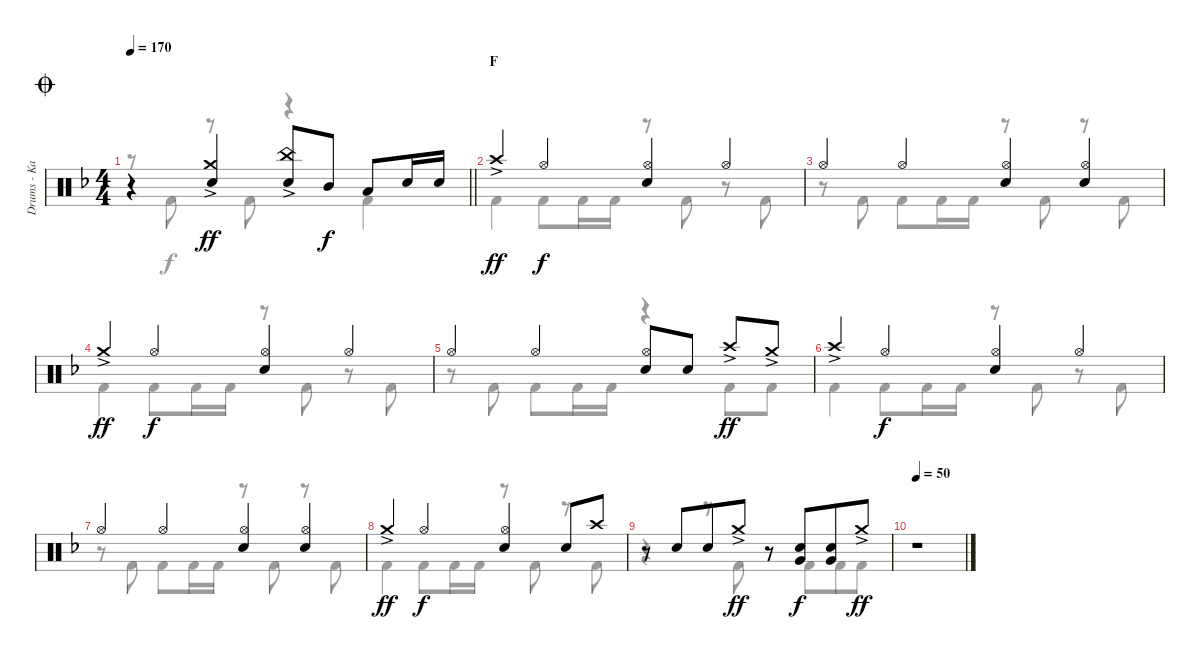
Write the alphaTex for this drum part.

\track ("Drums - Kai" "Drums - Ka") {instrument percussion}
\staff {score}
\articulation defaults
\voice
\ts (4 4)
\section ("" "")
\jump coda
\tempo 170
\clef neutral
\barLineRight lightlight
\ks f
r.4{dy ff} ("Crash medium (hit)"{ac} "Snare (hit) 2").4 ("China (hit)"{ac} "Snare (hit) 2").8 "Mid Tom (hit)".8{dy f} "Low Tom (hit)".8 "Snare (hit) 2".16 "Snare (hit) 2".16 |
\section ("" "F")
"Crash high (hit)"{ac}.4{dy ff} "Hi-Hat (open)".4{dy f} ("Hi-Hat (open)" "Snare (hit) 2").4 "Hi-Hat (open)".4 |
"Hi-Hat (open)".4 "Hi-Hat (open)".4 ("Hi-Hat (open)" "Snare (hit) 2").4 ("Hi-Hat (open)" "Snare (hit) 2").4 |
"Crash medium (hit)"{ac}.4{dy ff} "Hi-Hat (open)".4{dy f} ("Hi-Hat (open)" "Snare (hit) 2").4 "Hi-Hat (open)".4 |
"Hi-Hat (open)".4 "Hi-Hat (open)".4 ("Hi-Hat (open)" "Snare (hit) 2").8 "Snare (hit) 2".8 "Crash high (hit)"{ac}.8{dy ff} "Crash medium (hit)"{ac}.8 |
"Crash high (hit)"{ac}.4 "Hi-Hat (open)".4{dy f} ("Hi-Hat (open)" "Snare (hit) 2").4 "Hi-Hat (open)".4 |
"Hi-Hat (open)".4 "Hi-Hat (open)".4 ("Hi-Hat (open)" "Snare (hit) 2").4 ("Hi-Hat (open)" "Snare (hit) 2").4 |
"Crash medium (hit)"{ac}.4{dy ff} "Hi-Hat (open)".4{dy f} ("Hi-Hat (open)" "Snare (hit) 2").4 "Snare (hit) 2".8 "Crash high (hit)".8 |
r.8 "Snare (hit) 2".8{beam merge} "Snare (hit) 2".8 "Crash medium (hit)"{ac}.8{dy ff} r.8 ("Very Low Tom (hit)" "Snare (hit) 2").8{dy f beam merge} ("Very Low Tom (hit)" "Snare (hit) 2").8 "Crash medium (hit)"{ac}.8{dy ff} |
\tempo 50
r.1
\voice
\clef neutral
\ottava regular
\simile none
\barLineRight lightlight
\ks f
r.8{dy f} "Kick (hit) 2".8 r.8 "Kick (hit) 2".8 r.4 "Kick (hit) 2".4 |
"Kick (hit) 2".4 "Kick (hit) 2".8 "Kick (hit) 2".16 "Kick (hit) 2".16 r.8 "Kick (hit) 2".8 r.8 "Kick (hit) 2".8 |
r.8 "Kick (hit) 2".8 "Kick (hit) 2".8 "Kick (hit) 2".16 "Kick (hit) 2".16 r.8 "Kick (hit) 2".8 r.8 "Kick (hit) 2".8 |
"Kick (hit) 2".4 "Kick (hit) 2".8 "Kick (hit) 2".16 "Kick (hit) 2".16 r.8 "Kick (hit) 2".8 r.8 "Kick (hit) 2".8 |
r.8 "Kick (hit) 2".8 "Kick (hit) 2".8 "Kick (hit) 2".16 "Kick (hit) 2".16 r.4 "Kick (hit) 2".8 "Kick (hit) 2".8 |
"Kick (hit) 2".4 "Kick (hit) 2".8 "Kick (hit) 2".16 "Kick (hit) 2".16 r.8 "Kick (hit) 2".8 r.8 "Kick (hit) 2".8 |
r.8 "Kick (hit) 2".8 "Kick (hit) 2".8 "Kick (hit) 2".16 "Kick (hit) 2".16 r.8 "Kick (hit) 2".8 r.8 "Kick (hit) 2".8 |
"Kick (hit) 2".4 "Kick (hit) 2".8 "Kick (hit) 2".16 "Kick (hit) 2".16 r.8 "Kick (hit) 2".8 r.8 "Kick (hit) 2".8 |
r.4 r.8 "Kick (hit) 2".8 r.8 "Kick (hit) 2".8{beam merge} "Kick (hit) 2".8 "Kick (hit) 2".8 |
